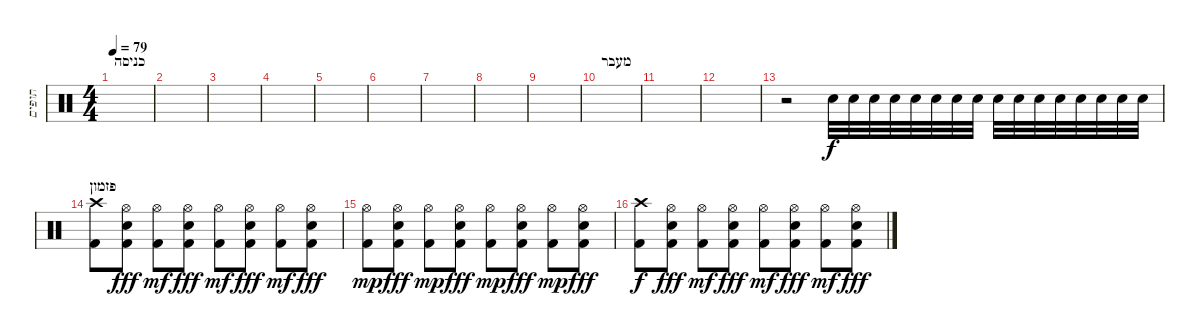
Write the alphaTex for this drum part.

\track ("תופים" "תופים") {instrument percussion}
\staff {score}
\articulation defaults
\ts (4 4)
\section ("" "כניסה")
\tempo 79
\clef neutral
\ks c
|
|
|
|
|
|
|
|
|
\section ("" "מעבר")
|
|
|
r.2 "Snare (hit) 2".32 "Snare (hit) 2".32 "Snare (hit) 2".32 "Snare (hit) 2".32 "Snare (hit) 2".32 "Snare (hit) 2".32 "Snare (hit) 2".32 "Snare (hit) 2".32 "Snare (hit) 2".32 "Snare (hit) 2".32 "Snare (hit) 2".32 "Snare (hit) 2".32 "Snare (hit) 2".32 "Snare (hit) 2".32 "Snare (hit) 2".32 "Snare (hit) 2".32 |
\section ("" "פזמון")
("Crash high (hit)" "Kick (hit) 2").8 ("Hi-Hat (open)" "Snare (hit) 2" "Kick (hit) 2").8{dy fff} ("Hi-Hat (open)" "Kick (hit) 2").8{dy mf} ("Hi-Hat (open)" "Snare (hit) 2" "Kick (hit) 2").8{dy fff} ("Hi-Hat (open)" "Kick (hit) 2").8{dy mf} ("Hi-Hat (open)" "Snare (hit) 2" "Kick (hit) 2").8{dy fff} ("Hi-Hat (open)" "Kick (hit) 2").8{dy mf} ("Hi-Hat (open)" "Snare (hit) 2" "Kick (hit) 2").8{dy fff} |
("Hi-Hat (open)" "Kick (hit) 2").8{dy mp} ("Hi-Hat (open)" "Snare (hit) 2" "Kick (hit) 2").8{dy fff} ("Hi-Hat (open)" "Kick (hit) 2").8{dy mp} ("Hi-Hat (open)" "Snare (hit) 2" "Kick (hit) 2").8{dy fff} ("Hi-Hat (open)" "Kick (hit) 2").8{dy mp} ("Hi-Hat (open)" "Snare (hit) 2" "Kick (hit) 2").8{dy fff} ("Hi-Hat (open)" "Kick (hit) 2").8{dy mp} ("Hi-Hat (open)" "Snare (hit) 2" "Kick (hit) 2").8{dy fff} |
("Crash high (hit)" "Kick (hit) 2").8{dy f} ("Hi-Hat (open)" "Snare (hit) 2" "Kick (hit) 2").8{dy fff} ("Hi-Hat (open)" "Kick (hit) 2").8{dy mf} ("Hi-Hat (open)" "Snare (hit) 2" "Kick (hit) 2").8{dy fff} ("Hi-Hat (open)" "Kick (hit) 2").8{dy mf} ("Hi-Hat (open)" "Snare (hit) 2" "Kick (hit) 2").8{dy fff} ("Hi-Hat (open)" "Kick (hit) 2").8{dy mf} ("Hi-Hat (open)" "Snare (hit) 2" "Kick (hit) 2").8{dy fff}
